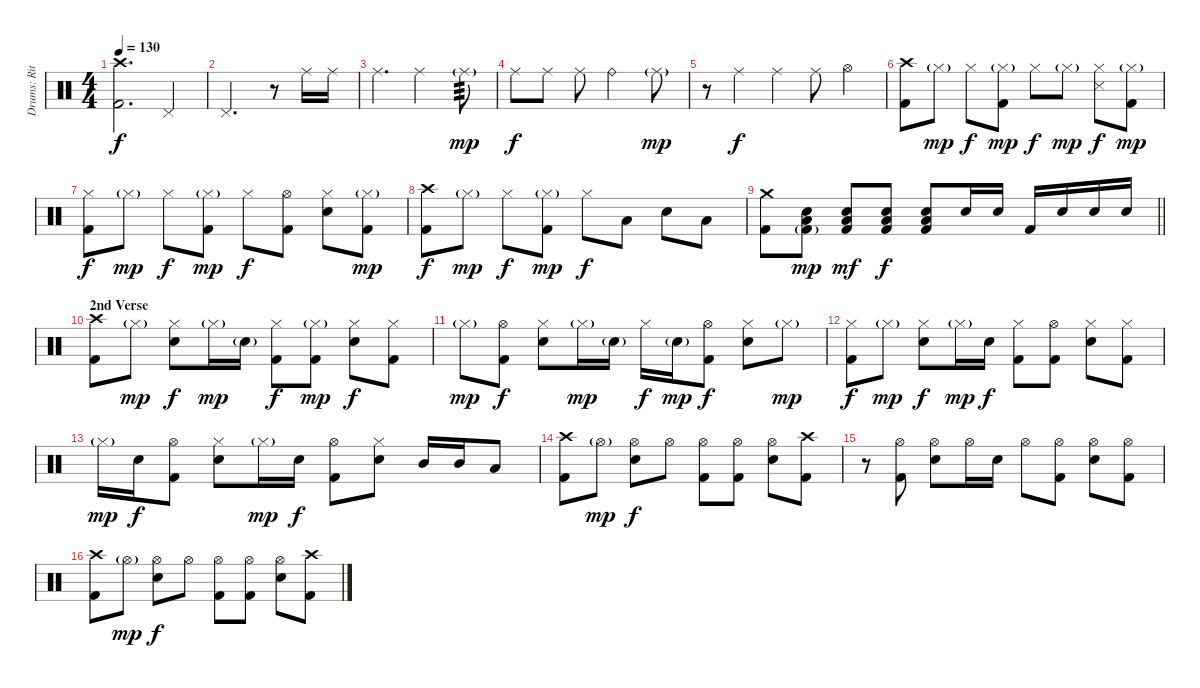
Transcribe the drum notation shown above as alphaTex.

\track ("Drums: Ritsu Tainaka" "Drums: Rit") {instrument percussion}
\staff {score}
\articulation defaults
\ts (4 4)
\tempo 130
\clef neutral
\ks c
("Crash high (hit)" "Kick (hit) 2").2{d dy f} "Pedal Hi-Hat (hit)".4 |
"Pedal Hi-Hat (hit)".2{d} r.8 "Ride (middle)".16 "Ride (middle)".16 |
"Ride (middle)".4{d} "Ride (middle)".2 "Ride (middle)"{g}.8{tp 3 dy mp} |
"Ride (middle)".8{dy f} "Ride (middle)".8 "Ride (middle)".8 "Ride (bell)".2 "Ride (middle)"{g}.8{dy mp} |
r.8 "Ride (middle)".4{dy f} "Ride (middle)".4 "Ride (middle)".8 "Hi-Hat (open)".4 |
("Crash high (hit)" "Kick (hit) 2").8 "Hi-Hat (closed)"{g}.8{dy mp} "Hi-Hat (closed)".8{dy f} ("Hi-Hat (closed)"{g} "Kick (hit) 2").8{dy mp} "Hi-Hat (closed)".8{dy f} "Hi-Hat (closed)"{g}.8{dy mp} ("Hi-Hat (closed)" "Snare (side stick) 3").8{dy f} ("Hi-Hat (closed)"{g} "Kick (hit) 2").8{dy mp} |
("Hi-Hat (closed)" "Kick (hit) 2").8{dy f} "Hi-Hat (closed)"{g}.8{dy mp} "Hi-Hat (closed)".8{dy f} ("Hi-Hat (closed)"{g} "Kick (hit) 2").8{dy mp} "Hi-Hat (closed)".8{dy f} ("Hi-Hat (open)" "Kick (hit) 2").8 ("Hi-Hat (closed)" "Electric Snare (hit)").8 ("Hi-Hat (closed)"{g} "Kick (hit) 2").8{dy mp} |
("Crash high (hit)" "Kick (hit) 2").8{dy f} "Hi-Hat (closed)"{g}.8{dy mp} "Hi-Hat (closed)".8{dy f} ("Hi-Hat (closed)"{g} "Kick (hit) 2").8{dy mp} "Hi-Hat (closed)".8{dy f} "Low Tom (hit)".8 "Electric Snare (hit)".8 "Low Floor Tom (hit)".8 |
\barLineRight lightlight
("Crash medium (hit)" "Kick (hit) 2").8 ("Electric Snare (hit)" "Low Floor Tom (hit)" "Kick (hit) 2"{g}).8{dy mp} ("Electric Snare (hit)" "Low Floor Tom (hit)" "Kick (hit) 2").8{dy mf} ("Electric Snare (hit)" "Low Floor Tom (hit)" "Kick (hit) 2").8{dy f} ("Electric Snare (hit)" "Low Floor Tom (hit)" "Kick (hit) 2").8 "Electric Snare (hit)".16 "Electric Snare (hit)".16 "Kick (hit) 2".16 "Electric Snare (hit)".16 "Electric Snare (hit)".16 "Electric Snare (hit)".16 |
\section ("" "2nd Verse")
("Crash high (hit)" "Kick (hit) 2").8 "Hi-Hat (closed)"{g}.8{dy mp} ("Hi-Hat (closed)" "Electric Snare (hit)").8{dy f} "Hi-Hat (closed)"{g}.16{dy mp} "Electric Snare (hit)"{g}.16 ("Hi-Hat (closed)" "Kick (hit) 2").8{dy f} ("Hi-Hat (closed)"{g} "Kick (hit) 2").8{dy mp} ("Hi-Hat (closed)" "Electric Snare (hit)").8{dy f} ("Hi-Hat (closed)" "Kick (hit) 2").8 |
"Hi-Hat (closed)"{g}.8{dy mp} ("Hi-Hat (open)" "Kick (hit) 2").8{dy f} ("Hi-Hat (closed)" "Electric Snare (hit)").8 "Hi-Hat (closed)"{g}.16{dy mp} "Electric Snare (hit)"{g}.16 "Hi-Hat (closed)".16{dy f} "Electric Snare (hit)"{g}.16{dy mp} ("Hi-Hat (open)" "Kick (hit) 2").8{dy f} ("Hi-Hat (closed)" "Electric Snare (hit)").8 "Hi-Hat (closed)"{g}.8{dy mp} |
("Hi-Hat (closed)" "Kick (hit) 2").8{dy f} "Hi-Hat (closed)"{g}.8{dy mp} ("Hi-Hat (closed)" "Electric Snare (hit)").8{dy f} "Hi-Hat (closed)"{g}.16{dy mp} "Electric Snare (hit)".16{dy f} ("Hi-Hat (closed)" "Kick (hit) 2").8 ("Hi-Hat (open)" "Kick (hit) 2").8 ("Hi-Hat (closed)" "Electric Snare (hit)").8 ("Hi-Hat (closed)" "Kick (hit) 2").8 |
"Hi-Hat (closed)"{g}.16{dy mp} "Electric Snare (hit)".16{dy f} ("Hi-Hat (open)" "Kick (hit) 2").8 ("Hi-Hat (closed)" "Electric Snare (hit)").8 "Hi-Hat (closed)"{g}.16{dy mp} "Electric Snare (hit)".16{dy f} ("Hi-Hat (open)" "Kick (hit) 2").8 ("Hi-Hat (closed)" "Electric Snare (hit)").8 "Mid Tom (hit)".16 "Mid Tom (hit)".16 "Low Tom (hit)".8 |
("Crash high (hit)" "Kick (hit) 2").8 "Hi-Hat (open)"{g}.8{dy mp} ("Hi-Hat (open)" "Electric Snare (hit)").8{dy f} "Hi-Hat (open)".8 ("Hi-Hat (open)" "Kick (hit) 2").8 ("Hi-Hat (open)" "Kick (hit) 2").8 ("Hi-Hat (open)" "Electric Snare (hit)").8 ("Crash high (hit)" "Kick (hit) 2").8 |
r.8 ("Hi-Hat (open)" "Kick (hit) 2").8 ("Hi-Hat (open)" "Electric Snare (hit)").8 "Hi-Hat (open)".16 "Electric Snare (hit)".16 "Hi-Hat (open)".8 ("Hi-Hat (open)" "Kick (hit) 2").8 ("Hi-Hat (open)" "Electric Snare (hit)").8 ("Hi-Hat (open)" "Kick (hit) 2").8 |
("Crash high (hit)" "Kick (hit) 2").8 "Hi-Hat (open)"{g}.8{dy mp} ("Hi-Hat (open)" "Electric Snare (hit)").8{dy f} "Hi-Hat (open)".8 ("Hi-Hat (open)" "Kick (hit) 2").8 ("Hi-Hat (open)" "Kick (hit) 2").8 ("Hi-Hat (open)" "Electric Snare (hit)").8 ("Crash high (hit)" "Kick (hit) 2").8
